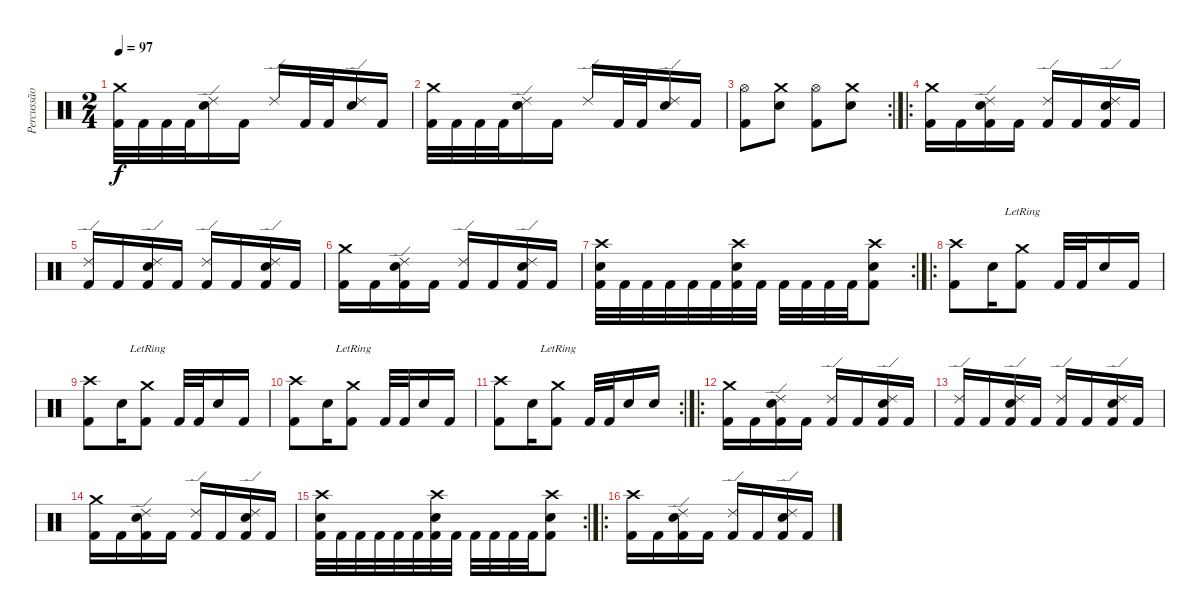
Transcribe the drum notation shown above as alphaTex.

\track ("Percussão" "Percussão") {instrument percussion}
\staff {score}
\articulation defaults
\ts (2 4)
\tempo 97
\clef neutral
\ks c
("Crash medium (hit)" "Kick (hit) 2").32{dy f} "Kick (hit) 2".32 "Kick (hit) 2".32 "Kick (hit) 2".32 ("Ride (edge) 2" "Snare (hit) 2").16 "Kick (hit) 2".16 "Ride (edge) 2".16 "Kick (hit) 2".32 "Kick (hit) 2".32 ("Ride (edge) 2" "Snare (hit) 2").16 "Kick (hit) 2".16 |
("Crash medium (hit)" "Kick (hit) 2").32 "Kick (hit) 2".32 "Kick (hit) 2".32 "Kick (hit) 2".32 ("Ride (edge) 2" "Snare (hit) 2").16 "Kick (hit) 2".16 "Ride (edge) 2".16 "Kick (hit) 2".32 "Kick (hit) 2".32 ("Ride (edge) 2" "Snare (hit) 2").16 "Kick (hit) 2".16 |
\rc 2
("Hi-Hat (open)" "Kick (hit) 2").8 ("Crash medium (hit)" "Snare (hit) 2").8 ("Hi-Hat (open)" "Kick (hit) 2").8 ("Crash medium (hit)" "Snare (hit) 2").8 |
\ro
("Crash medium (hit)" "Kick (hit) 2").16 "Kick (hit) 2".16 ("Ride (edge) 2" "Snare (hit) 2" "Kick (hit) 2").16 "Kick (hit) 2".16 ("Ride (edge) 2" "Kick (hit) 2").16 "Kick (hit) 2".16 ("Ride (edge) 2" "Snare (hit) 2" "Kick (hit) 2").16 "Kick (hit) 2".16 |
("Ride (edge) 2" "Kick (hit) 2").16 "Kick (hit) 2".16 ("Ride (edge) 2" "Snare (hit) 2" "Kick (hit) 2").16 "Kick (hit) 2".16 ("Ride (edge) 2" "Kick (hit) 2").16 "Kick (hit) 2".16 ("Ride (edge) 2" "Snare (hit) 2" "Kick (hit) 2").16 "Kick (hit) 2".16 |
("Crash medium (hit)" "Kick (hit) 2").16 "Kick (hit) 2".16 ("Ride (edge) 2" "Snare (hit) 2" "Kick (hit) 2").16 "Kick (hit) 2".16 ("Ride (edge) 2" "Kick (hit) 2").16 "Kick (hit) 2".16 ("Ride (edge) 2" "Snare (hit) 2" "Kick (hit) 2").16 "Kick (hit) 2".16 |
\rc 2
("Crash high (hit)" "Snare (hit) 2" "Kick (hit) 2").32 "Kick (hit) 2".32 "Kick (hit) 2".32 "Kick (hit) 2".32 "Kick (hit) 2".32 "Kick (hit) 2".32 ("Crash high (hit)" "Snare (hit) 2" "Kick (hit) 2").32 "Kick (hit) 2".32 "Kick (hit) 2".32 "Kick (hit) 2".32 "Kick (hit) 2".32 "Kick (hit) 2".32 ("Crash high (hit)" "Snare (hit) 2" "Kick (hit) 2").8 |
\ro
("Crash high (hit)" "Kick (hit) 2").8 "Snare (hit) 2".16 ("Crash medium (hit)"{lr} "Kick (hit) 2").8 "Kick (hit) 2".32 "Kick (hit) 2".32 "Snare (hit) 2".16 "Kick (hit) 2".16 |
("Crash high (hit)" "Kick (hit) 2").8 "Snare (hit) 2".16 ("Crash medium (hit)"{lr} "Kick (hit) 2").8 "Kick (hit) 2".32 "Kick (hit) 2".32 "Snare (hit) 2".16 "Kick (hit) 2".16 |
("Crash high (hit)" "Kick (hit) 2").8 "Snare (hit) 2".16 ("Crash medium (hit)"{lr} "Kick (hit) 2").8 "Kick (hit) 2".32 "Kick (hit) 2".32 "Snare (hit) 2".16 "Kick (hit) 2".16 |
\rc 2
("Crash high (hit)" "Kick (hit) 2").8 "Snare (hit) 2".16 ("Crash medium (hit)"{lr} "Kick (hit) 2").8 "Kick (hit) 2".32 "Kick (hit) 2".32 "Snare (hit) 2".16 "Snare (hit) 2".16 |
\ro
("Crash medium (hit)" "Kick (hit) 2").16 "Kick (hit) 2".16 ("Ride (edge) 2" "Snare (hit) 2" "Kick (hit) 2").16 "Kick (hit) 2".16 ("Ride (edge) 2" "Kick (hit) 2").16 "Kick (hit) 2".16 ("Ride (edge) 2" "Snare (hit) 2" "Kick (hit) 2").16 "Kick (hit) 2".16 |
("Ride (edge) 2" "Kick (hit) 2").16 "Kick (hit) 2".16 ("Ride (edge) 2" "Snare (hit) 2" "Kick (hit) 2").16 "Kick (hit) 2".16 ("Ride (edge) 2" "Kick (hit) 2").16 "Kick (hit) 2".16 ("Ride (edge) 2" "Snare (hit) 2" "Kick (hit) 2").16 "Kick (hit) 2".16 |
("Crash medium (hit)" "Kick (hit) 2").16 "Kick (hit) 2".16 ("Ride (edge) 2" "Snare (hit) 2" "Kick (hit) 2").16 "Kick (hit) 2".16 ("Ride (edge) 2" "Kick (hit) 2").16 "Kick (hit) 2".16 ("Ride (edge) 2" "Snare (hit) 2" "Kick (hit) 2").16 "Kick (hit) 2".16 |
\rc 2
("Crash high (hit)" "Snare (hit) 2" "Kick (hit) 2").32 "Kick (hit) 2".32 "Kick (hit) 2".32 "Kick (hit) 2".32 "Kick (hit) 2".32 "Kick (hit) 2".32 ("Crash high (hit)" "Snare (hit) 2" "Kick (hit) 2").32 "Kick (hit) 2".32 "Kick (hit) 2".32 "Kick (hit) 2".32 "Kick (hit) 2".32 "Kick (hit) 2".32 ("Crash high (hit)" "Snare (hit) 2" "Kick (hit) 2").8 |
\ro
("Crash high (hit)" "Kick (hit) 2").16 "Kick (hit) 2".16 ("Ride (edge) 2" "Snare (hit) 2" "Kick (hit) 2").16 "Kick (hit) 2".16 ("Ride (edge) 2" "Kick (hit) 2").16 "Kick (hit) 2".16 ("Ride (edge) 2" "Snare (hit) 2" "Kick (hit) 2").16 "Kick (hit) 2".16
